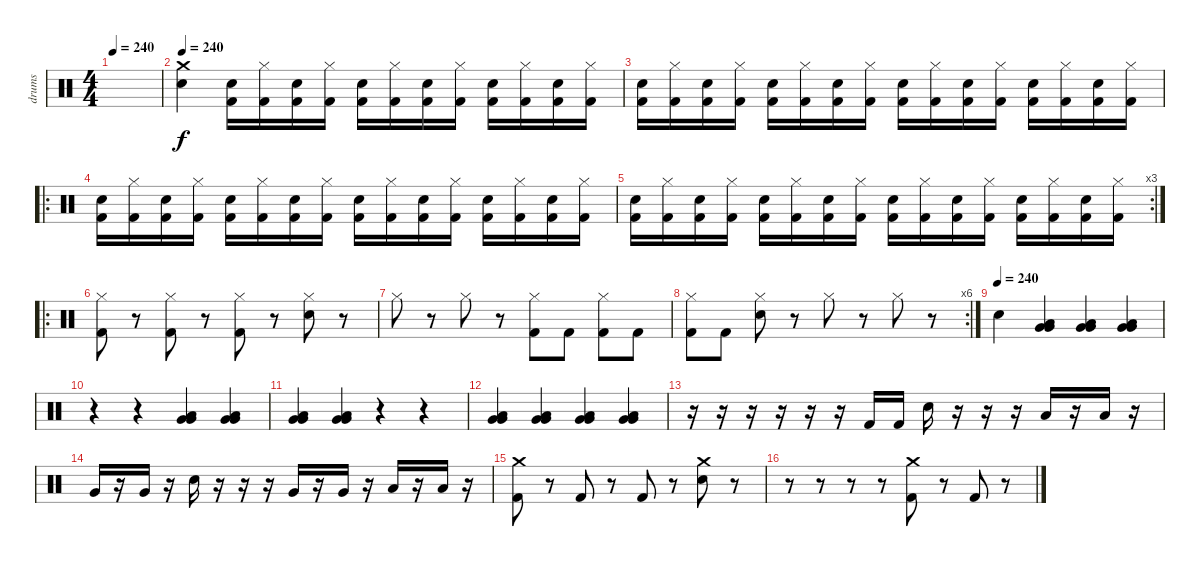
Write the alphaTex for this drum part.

\track ("drums" "drums") {instrument percussion}
\staff {score}
\articulation defaults
\ts (4 4)
\tempo 240
\clef neutral
\ks c
|
\tempo 240
("Crash medium (hit)" "Snare (hit) 2").4 ("Snare (hit) 2" "Kick (hit) 2").16 ("Hi-Hat (closed)" "Kick (hit) 2").16 ("Snare (hit) 2" "Kick (hit) 2").16 ("Hi-Hat (closed)" "Kick (hit) 2").16 ("Snare (hit) 2" "Kick (hit) 2").16 ("Hi-Hat (closed)" "Kick (hit) 2").16 ("Snare (hit) 2" "Kick (hit) 2").16 ("Hi-Hat (closed)" "Kick (hit) 2").16 ("Snare (hit) 2" "Kick (hit) 2").16 ("Hi-Hat (closed)" "Kick (hit) 2").16 ("Snare (hit) 2" "Kick (hit) 2").16 ("Hi-Hat (closed)" "Kick (hit) 2").16 |
("Snare (hit) 2" "Kick (hit) 2").16 ("Hi-Hat (closed)" "Kick (hit) 2").16 ("Snare (hit) 2" "Kick (hit) 2").16 ("Hi-Hat (closed)" "Kick (hit) 2").16 ("Snare (hit) 2" "Kick (hit) 2").16 ("Hi-Hat (closed)" "Kick (hit) 2").16 ("Snare (hit) 2" "Kick (hit) 2").16 ("Hi-Hat (closed)" "Kick (hit) 2").16 ("Snare (hit) 2" "Kick (hit) 2").16 ("Hi-Hat (closed)" "Kick (hit) 2").16 ("Snare (hit) 2" "Kick (hit) 2").16 ("Hi-Hat (closed)" "Kick (hit) 2").16 ("Snare (hit) 2" "Kick (hit) 2").16 ("Hi-Hat (closed)" "Kick (hit) 2").16 ("Snare (hit) 2" "Kick (hit) 2").16 ("Hi-Hat (closed)" "Kick (hit) 2").16 |
\ro
("Snare (hit) 2" "Kick (hit) 2").16 ("Hi-Hat (closed)" "Kick (hit) 2").16 ("Snare (hit) 2" "Kick (hit) 2").16 ("Hi-Hat (closed)" "Kick (hit) 2").16 ("Snare (hit) 2" "Kick (hit) 2").16 ("Hi-Hat (closed)" "Kick (hit) 2").16 ("Snare (hit) 2" "Kick (hit) 2").16 ("Hi-Hat (closed)" "Kick (hit) 2").16 ("Snare (hit) 2" "Kick (hit) 2").16 ("Hi-Hat (closed)" "Kick (hit) 2").16 ("Snare (hit) 2" "Kick (hit) 2").16 ("Hi-Hat (closed)" "Kick (hit) 2").16 ("Snare (hit) 2" "Kick (hit) 2").16 ("Hi-Hat (closed)" "Kick (hit) 2").16 ("Snare (hit) 2" "Kick (hit) 2").16 ("Hi-Hat (closed)" "Kick (hit) 2").16 |
\rc 3
("Snare (hit) 2" "Kick (hit) 2").16 ("Hi-Hat (closed)" "Kick (hit) 2").16 ("Snare (hit) 2" "Kick (hit) 2").16 ("Hi-Hat (closed)" "Kick (hit) 2").16 ("Snare (hit) 2" "Kick (hit) 2").16 ("Hi-Hat (closed)" "Kick (hit) 2").16 ("Snare (hit) 2" "Kick (hit) 2").16 ("Hi-Hat (closed)" "Kick (hit) 2").16 ("Snare (hit) 2" "Kick (hit) 2").16 ("Hi-Hat (closed)" "Kick (hit) 2").16 ("Snare (hit) 2" "Kick (hit) 2").16 ("Hi-Hat (closed)" "Kick (hit) 2").16 ("Snare (hit) 2" "Kick (hit) 2").16 ("Hi-Hat (closed)" "Kick (hit) 2").16 ("Snare (hit) 2" "Kick (hit) 2").16 ("Hi-Hat (closed)" "Kick (hit) 2").16 |
\ro
("Hi-Hat (closed)" "Kick (hit) 2").8 r.8 ("Hi-Hat (closed)" "Kick (hit) 2").8 r.8 ("Hi-Hat (closed)" "Kick (hit) 2").8 r.8 ("Hi-Hat (closed)" "Snare (hit) 2").8 r.8 |
"Hi-Hat (closed)".8 r.8 "Hi-Hat (closed)".8 r.8 ("Hi-Hat (closed)" "Kick (hit) 2").8 "Kick (hit) 2".8 ("Hi-Hat (closed)" "Kick (hit) 2").8 "Kick (hit) 2".8 |
\rc 6
("Hi-Hat (closed)" "Kick (hit) 2").8 "Kick (hit) 2".8 ("Hi-Hat (closed)" "Snare (hit) 2").8 r.8 "Hi-Hat (closed)".8 r.8 "Hi-Hat (closed)".8 r.8 |
\tempo (240)
"Snare (hit) 2".4 ("Very Low Tom (hit)" "Low Floor Tom (hit)" "Very Low Tom (hit)").4 ("Very Low Tom (hit)" "Low Floor Tom (hit)" "Very Low Tom (hit)").4 ("Very Low Tom (hit)" "Low Floor Tom (hit)" "Very Low Tom (hit)").4 |
r.4 r.4 ("Very Low Tom (hit)" "Low Floor Tom (hit)" "Very Low Tom (hit)").4 ("Very Low Tom (hit)" "Low Floor Tom (hit)" "Very Low Tom (hit)").4 |
("Very Low Tom (hit)" "Low Floor Tom (hit)" "Very Low Tom (hit)").4 ("Very Low Tom (hit)" "Low Floor Tom (hit)" "Very Low Tom (hit)").4 r.4 r.4 |
("Very Low Tom (hit)" "Low Floor Tom (hit)" "Very Low Tom (hit)").4 ("Very Low Tom (hit)" "Low Floor Tom (hit)" "Very Low Tom (hit)").4 ("Very Low Tom (hit)" "Low Floor Tom (hit)" "Very Low Tom (hit)").4 ("Very Low Tom (hit)" "Low Floor Tom (hit)" "Very Low Tom (hit)").4 |
r.16 r.16 r.16 r.16 r.16 r.16 "Kick (hit) 2".16 "Kick (hit) 2".16 "Snare (hit) 2".16 r.16 r.16 r.16 "Low Tom (hit)".16 r.16 "Low Tom (hit)".16 r.16 |
"Very Low Tom (hit)".16 r.16 "Very Low Tom (hit)".16 r.16 "Snare (hit) 2".16 r.16 r.16 r.16 "Very Low Tom (hit)".16 r.16 "Very Low Tom (hit)".16 r.16 "Low Floor Tom (hit)".16 r.16 "Low Floor Tom (hit)".16 r.16 |
("Crash medium (hit)" "Kick (hit) 2").8 r.8 "Kick (hit) 2".8 r.8 "Kick (hit) 2".8 r.8 ("Crash medium (hit)" "Snare (hit) 2").8 r.8 |
r.8 r.8 r.8 r.8 ("Crash medium (hit)" "Kick (hit) 2").8 r.8 "Kick (hit) 2".8 r.8
